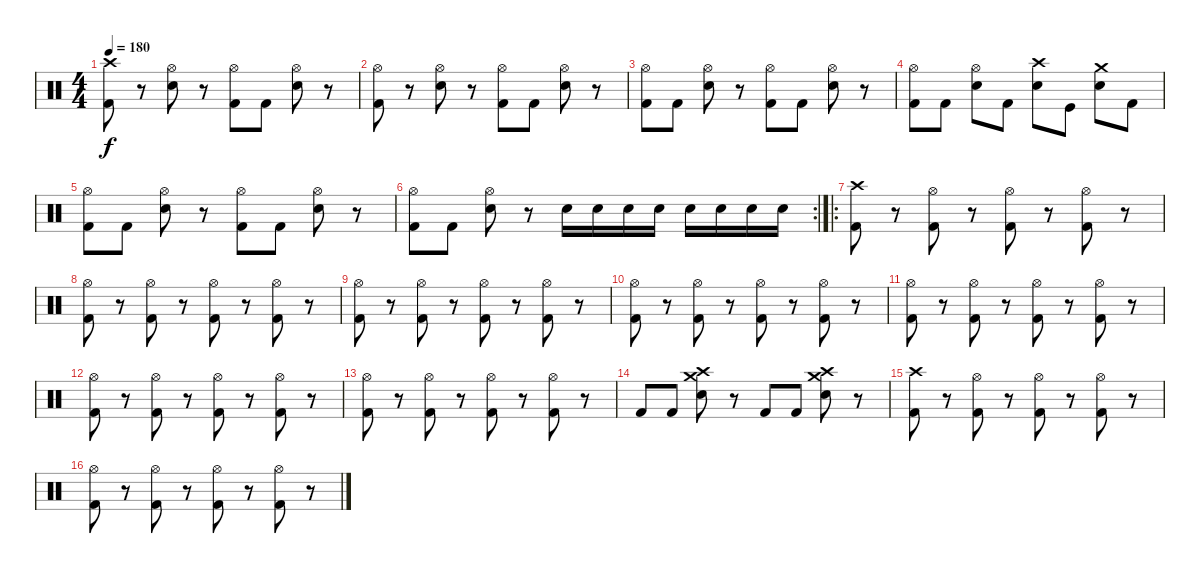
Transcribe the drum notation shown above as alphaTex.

\track "" {instrument percussion}
\staff {score}
\articulation defaults
\ts (4 4)
\tempo 180
\clef neutral
\ks c
("Crash high (hit)" "Kick (hit) 2").8{dy f} r.8 ("Hi-Hat (open)" "Electric Snare (hit)").8 r.8 ("Hi-Hat (open)" "Kick (hit) 2").8 "Kick (hit) 2".8 ("Hi-Hat (open)" "Electric Snare (hit)").8 r.8 |
("Hi-Hat (open)" "Kick (hit) 2").8 r.8 ("Hi-Hat (open)" "Electric Snare (hit)").8 r.8 ("Hi-Hat (open)" "Kick (hit) 2").8 "Kick (hit) 2".8 ("Hi-Hat (open)" "Electric Snare (hit)").8 r.8 |
("Hi-Hat (open)" "Kick (hit) 2").8 "Kick (hit) 2".8 ("Hi-Hat (open)" "Electric Snare (hit)").8 r.8 ("Hi-Hat (open)" "Kick (hit) 2").8 "Kick (hit) 2".8 ("Hi-Hat (open)" "Electric Snare (hit)").8 r.8 |
("Hi-Hat (open)" "Kick (hit) 2").8 "Kick (hit) 2".8 ("Hi-Hat (open)" "Electric Snare (hit)").8 "Kick (hit) 2".8 ("Crash high (hit)" "Electric Snare (hit)").8 "Kick (hit)".8 ("Crash medium (hit)" "Electric Snare (hit)").8 "Kick (hit) 2".8 |
("Hi-Hat (open)" "Kick (hit) 2").8 "Kick (hit) 2".8 ("Hi-Hat (open)" "Electric Snare (hit)").8 r.8 ("Hi-Hat (open)" "Kick (hit) 2").8 "Kick (hit) 2".8 ("Hi-Hat (open)" "Electric Snare (hit)").8 r.8 |
\rc 2
("Hi-Hat (open)" "Kick (hit) 2").8 "Kick (hit) 2".8 ("Hi-Hat (open)" "Electric Snare (hit)").8 r.8 "Electric Snare (hit)".16 "Electric Snare (hit)".16 "Electric Snare (hit)".16 "Electric Snare (hit)".16 "Electric Snare (hit)".16 "Electric Snare (hit)".16 "Electric Snare (hit)".16 "Electric Snare (hit)".16 |
\ro
("Crash high (hit)" "Kick (hit) 2").8 r.8 ("Hi-Hat (open)" "Kick (hit) 2").8 r.8 ("Hi-Hat (open)" "Kick (hit) 2").8 r.8 ("Hi-Hat (open)" "Kick (hit) 2").8 r.8 |
("Hi-Hat (open)" "Kick (hit) 2").8 r.8 ("Hi-Hat (open)" "Kick (hit) 2").8 r.8 ("Hi-Hat (open)" "Kick (hit) 2").8 r.8 ("Hi-Hat (open)" "Kick (hit) 2").8 r.8 |
("Hi-Hat (open)" "Kick (hit) 2").8 r.8 ("Hi-Hat (open)" "Kick (hit) 2").8 r.8 ("Hi-Hat (open)" "Kick (hit) 2").8 r.8 ("Hi-Hat (open)" "Kick (hit) 2").8 r.8 |
("Hi-Hat (open)" "Kick (hit) 2").8 r.8 ("Hi-Hat (open)" "Kick (hit) 2").8 r.8 ("Hi-Hat (open)" "Kick (hit) 2").8 r.8 ("Hi-Hat (open)" "Kick (hit) 2").8 r.8 |
("Hi-Hat (open)" "Kick (hit) 2").8 r.8 ("Hi-Hat (open)" "Kick (hit) 2").8 r.8 ("Hi-Hat (open)" "Kick (hit) 2").8 r.8 ("Hi-Hat (open)" "Kick (hit) 2").8 r.8 |
("Hi-Hat (open)" "Kick (hit) 2").8 r.8 ("Hi-Hat (open)" "Kick (hit) 2").8 r.8 ("Hi-Hat (open)" "Kick (hit) 2").8 r.8 ("Hi-Hat (open)" "Kick (hit) 2").8 r.8 |
("Hi-Hat (open)" "Kick (hit) 2").8 r.8 ("Hi-Hat (open)" "Kick (hit) 2").8 r.8 ("Hi-Hat (open)" "Kick (hit) 2").8 r.8 ("Hi-Hat (open)" "Kick (hit) 2").8 r.8 |
"Kick (hit) 2".8 "Kick (hit) 2".8 ("Crash medium (hit)" "Crash high (hit)" "Electric Snare (hit)").8 r.8 "Kick (hit) 2".8 "Kick (hit) 2".8 ("Crash high (hit)" "Crash medium (hit)" "Electric Snare (hit)").8 r.8 |
("Crash high (hit)" "Kick (hit) 2").8 r.8 ("Hi-Hat (open)" "Kick (hit) 2").8 r.8 ("Hi-Hat (open)" "Kick (hit) 2").8 r.8 ("Hi-Hat (open)" "Kick (hit) 2").8 r.8 |
("Hi-Hat (open)" "Kick (hit) 2").8 r.8 ("Hi-Hat (open)" "Kick (hit) 2").8 r.8 ("Hi-Hat (open)" "Kick (hit) 2").8 r.8 ("Hi-Hat (open)" "Kick (hit) 2").8 r.8
